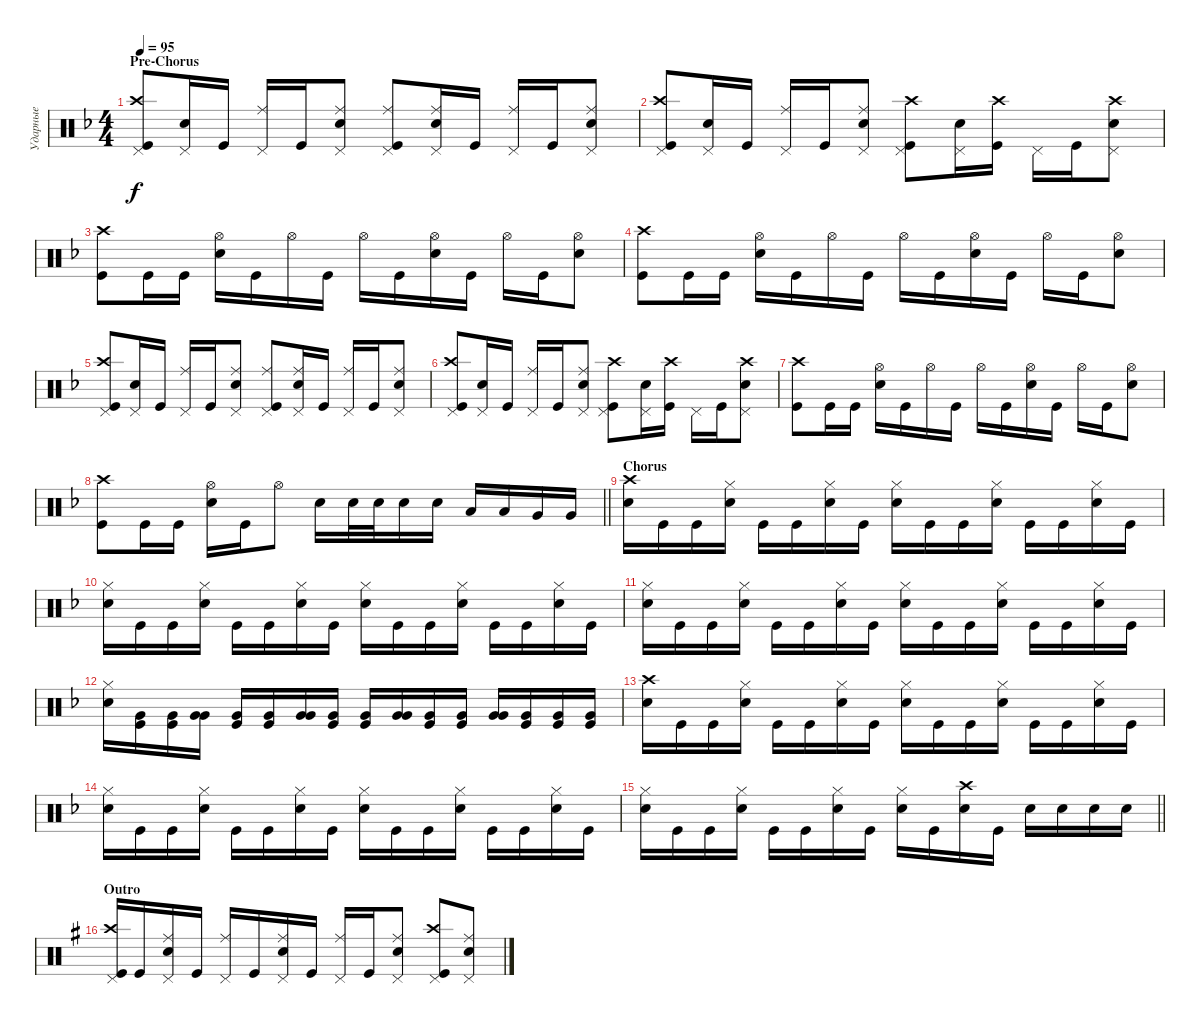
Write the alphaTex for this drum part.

\track ("Ударные" "Ударные") {instrument percussion}
\staff {score}
\articulation defaults
\ts (4 4)
\section ("" "Pre-Chorus")
\tempo 95
\clef neutral
\ks dminor
("Kick (hit)" "Crash high (hit)" "Pedal Hi-Hat (hit)").8{dy f} ("Snare (hit) 2" "Pedal Hi-Hat (hit)").16 "Kick (hit)".16 ("Pedal Hi-Hat (hit)" "Ride (middle)").16 "Kick (hit)".16 ("Snare (hit) 2" "Pedal Hi-Hat (hit)" "Ride (middle)").8 ("Kick (hit)" "Pedal Hi-Hat (hit)" "Ride (middle)").8 ("Snare (hit) 2" "Pedal Hi-Hat (hit)" "Ride (middle)").16 "Kick (hit)".16 ("Pedal Hi-Hat (hit)" "Ride (middle)").16 "Kick (hit)".16 ("Snare (hit) 2" "Pedal Hi-Hat (hit)" "Ride (middle)").8 |
("Kick (hit)" "Crash high (hit)" "Pedal Hi-Hat (hit)").8 ("Snare (hit) 2" "Pedal Hi-Hat (hit)").16 "Kick (hit)".16 ("Pedal Hi-Hat (hit)" "Ride (middle)").16 "Kick (hit)".16 ("Snare (hit) 2" "Pedal Hi-Hat (hit)" "Ride (middle)").8 ("Kick (hit)" "Pedal Hi-Hat (hit)" "Crash high (hit)").8 ("Snare (hit) 2" "Pedal Hi-Hat (hit)").16 ("Kick (hit)" "Crash high (hit)").16 "Pedal Hi-Hat (hit)".16 "Kick (hit)".16 ("Snare (hit) 2" "Pedal Hi-Hat (hit)" "Crash high (hit)").8 |
("Kick (hit)" "Crash high (hit)").8 "Kick (hit)".16 "Kick (hit)".16 ("Snare (hit) 2" "Hi-Hat (open)").16 "Kick (hit)".16 "Hi-Hat (open)".16 "Kick (hit)".16 "Hi-Hat (open)".16 "Kick (hit)".16 ("Snare (hit) 2" "Hi-Hat (open)").16 "Kick (hit)".16 "Hi-Hat (open)".16 "Kick (hit)".16 ("Snare (hit) 2" "Hi-Hat (open)").8 |
("Kick (hit)" "Crash high (hit)").8 "Kick (hit)".16 "Kick (hit)".16 ("Snare (hit) 2" "Hi-Hat (open)").16 "Kick (hit)".16 "Hi-Hat (open)".16 "Kick (hit)".16 "Hi-Hat (open)".16 "Kick (hit)".16 ("Snare (hit) 2" "Hi-Hat (open)").16 "Kick (hit)".16 "Hi-Hat (open)".16 "Kick (hit)".16 ("Snare (hit) 2" "Hi-Hat (open)").8 |
("Kick (hit)" "Crash high (hit)" "Pedal Hi-Hat (hit)").8 ("Snare (hit) 2" "Pedal Hi-Hat (hit)").16 "Kick (hit)".16 ("Pedal Hi-Hat (hit)" "Ride (middle)").16 "Kick (hit)".16 ("Snare (hit) 2" "Pedal Hi-Hat (hit)" "Ride (middle)").8 ("Kick (hit)" "Pedal Hi-Hat (hit)" "Ride (middle)").8 ("Snare (hit) 2" "Pedal Hi-Hat (hit)" "Ride (middle)").16 "Kick (hit)".16 ("Pedal Hi-Hat (hit)" "Ride (middle)").16 "Kick (hit)".16 ("Snare (hit) 2" "Pedal Hi-Hat (hit)" "Ride (middle)").8 |
("Kick (hit)" "Crash high (hit)" "Pedal Hi-Hat (hit)").8 ("Snare (hit) 2" "Pedal Hi-Hat (hit)").16 "Kick (hit)".16 ("Pedal Hi-Hat (hit)" "Ride (middle)").16 "Kick (hit)".16 ("Snare (hit) 2" "Pedal Hi-Hat (hit)" "Ride (middle)").8 ("Kick (hit)" "Pedal Hi-Hat (hit)" "Crash high (hit)").8 ("Snare (hit) 2" "Pedal Hi-Hat (hit)").16 ("Kick (hit)" "Crash high (hit)").16 "Pedal Hi-Hat (hit)".16 "Kick (hit)".16 ("Snare (hit) 2" "Pedal Hi-Hat (hit)" "Crash high (hit)").8 |
("Kick (hit)" "Crash high (hit)").8 "Kick (hit)".16 "Kick (hit)".16 ("Snare (hit) 2" "Hi-Hat (open)").16 "Kick (hit)".16 "Hi-Hat (open)".16 "Kick (hit)".16 "Hi-Hat (open)".16 "Kick (hit)".16 ("Snare (hit) 2" "Hi-Hat (open)").16 "Kick (hit)".16 "Hi-Hat (open)".16 "Kick (hit)".16 ("Snare (hit) 2" "Hi-Hat (open)").8 |
\barLineRight lightlight
("Kick (hit)" "Crash high (hit)").8 "Kick (hit)".16 "Kick (hit)".16 ("Snare (hit) 2" "Hi-Hat (open)").16 "Kick (hit)".16 "Hi-Hat (open)".8 "Snare (hit) 2".16 "Snare (hit) 2".32 "Snare (hit) 2".32 "Snare (hit) 2".16 "Snare (hit) 2".16 "Low Tom (hit)".16 "Low Tom (hit)".16 "Very Low Tom (hit)".16 "Very Low Tom (hit)".16 |
\section ("" "Chorus")
("Snare (hit) 2" "Crash high (hit)").16 "Kick (hit)".16 "Kick (hit)".16 ("Snare (hit) 2" "Hi-Hat (closed)").16 "Kick (hit)".16 "Kick (hit)".16 ("Snare (hit) 2" "Hi-Hat (closed)").16 "Kick (hit)".16 ("Snare (hit) 2" "Hi-Hat (closed)").16 "Kick (hit)".16 "Kick (hit)".16 ("Snare (hit) 2" "Hi-Hat (closed)").16 "Kick (hit)".16 "Kick (hit)".16 ("Snare (hit) 2" "Hi-Hat (closed)").16 "Kick (hit)".16 |
("Snare (hit) 2" "Hi-Hat (closed)").16 "Kick (hit)".16 "Kick (hit)".16 ("Snare (hit) 2" "Hi-Hat (closed)").16 "Kick (hit)".16 "Kick (hit)".16 ("Snare (hit) 2" "Hi-Hat (closed)").16 "Kick (hit)".16 ("Snare (hit) 2" "Hi-Hat (closed)").16 "Kick (hit)".16 "Kick (hit)".16 ("Snare (hit) 2" "Hi-Hat (closed)").16 "Kick (hit)".16 "Kick (hit)".16 ("Snare (hit) 2" "Hi-Hat (closed)").16 "Kick (hit)".16 |
("Snare (hit) 2" "Hi-Hat (closed)").16 "Kick (hit)".16 "Kick (hit)".16 ("Snare (hit) 2" "Hi-Hat (closed)").16 "Kick (hit)".16 "Kick (hit)".16 ("Snare (hit) 2" "Hi-Hat (closed)").16 "Kick (hit)".16 ("Snare (hit) 2" "Hi-Hat (closed)").16 "Kick (hit)".16 "Kick (hit)".16 ("Snare (hit) 2" "Hi-Hat (closed)").16 "Kick (hit)".16 "Kick (hit)".16 ("Snare (hit) 2" "Hi-Hat (closed)").16 "Kick (hit)".16 |
("Snare (hit) 2" "Hi-Hat (closed)").16 ("Kick (hit)" "Very Low Tom (hit)").16 ("Kick (hit)" "Very Low Tom (hit)").16 ("Very Low Tom (hit)" "Very Low Tom (hit)").16{bd 240} ("Kick (hit)" "Very Low Tom (hit)").16 ("Kick (hit)" "Very Low Tom (hit)").16 ("Very Low Tom (hit)" "Very Low Tom (hit)").16{bd 240} ("Kick (hit)" "Very Low Tom (hit)").16 ("Kick (hit)" "Very Low Tom (hit)").16 ("Very Low Tom (hit)" "Very Low Tom (hit)").16{bd 240} ("Kick (hit)" "Very Low Tom (hit)").16 ("Kick (hit)" "Very Low Tom (hit)").16 ("Very Low Tom (hit)" "Very Low Tom (hit)").16{bd 240} ("Kick (hit)" "Very Low Tom (hit)").16 ("Kick (hit)" "Very Low Tom (hit)").16 ("Very Low Tom (hit)" "Kick (hit)").16 |
("Snare (hit) 2" "Crash high (hit)").16 "Kick (hit)".16 "Kick (hit)".16 ("Snare (hit) 2" "Hi-Hat (closed)").16 "Kick (hit)".16 "Kick (hit)".16 ("Snare (hit) 2" "Hi-Hat (closed)").16 "Kick (hit)".16 ("Snare (hit) 2" "Hi-Hat (closed)").16 "Kick (hit)".16 "Kick (hit)".16 ("Snare (hit) 2" "Hi-Hat (closed)").16 "Kick (hit)".16 "Kick (hit)".16 ("Snare (hit) 2" "Hi-Hat (closed)").16 "Kick (hit)".16 |
("Snare (hit) 2" "Hi-Hat (closed)").16 "Kick (hit)".16 "Kick (hit)".16 ("Snare (hit) 2" "Hi-Hat (closed)").16 "Kick (hit)".16 "Kick (hit)".16 ("Snare (hit) 2" "Hi-Hat (closed)").16 "Kick (hit)".16 ("Snare (hit) 2" "Hi-Hat (closed)").16 "Kick (hit)".16 "Kick (hit)".16 ("Snare (hit) 2" "Hi-Hat (closed)").16 "Kick (hit)".16 "Kick (hit)".16 ("Snare (hit) 2" "Hi-Hat (closed)").16 "Kick (hit)".16 |
\barLineRight lightlight
("Snare (hit) 2" "Hi-Hat (closed)").16 "Kick (hit)".16 "Kick (hit)".16 ("Snare (hit) 2" "Hi-Hat (closed)").16 "Kick (hit)".16 "Kick (hit)".16 ("Snare (hit) 2" "Hi-Hat (closed)").16 "Kick (hit)".16 ("Snare (hit) 2" "Hi-Hat (closed)").16 "Kick (hit)".16 ("Snare (hit) 2" "Crash high (hit)").16 "Kick (hit)".16 "Snare (hit) 2".16 "Snare (hit) 2".16 "Snare (hit) 2".16 "Snare (hit) 2".16 |
\section ("" "Outro")
\ks eminor
("Kick (hit)" "Pedal Hi-Hat (hit)" "Crash high (hit)").16 "Kick (hit)".16 ("Snare (hit) 2" "Pedal Hi-Hat (hit)" "Ride (middle)").16 "Kick (hit)".16 ("Pedal Hi-Hat (hit)" "Ride (middle)").16 "Kick (hit)".16 ("Snare (hit) 2" "Pedal Hi-Hat (hit)" "Ride (middle)").16 "Kick (hit)".16 ("Pedal Hi-Hat (hit)" "Ride (middle)").16 "Kick (hit)".16 ("Snare (hit) 2" "Pedal Hi-Hat (hit)" "Ride (middle)").8 ("Kick (hit)" "Crash high (hit)" "Pedal Hi-Hat (hit)").8 ("Snare (hit) 2" "Pedal Hi-Hat (hit)" "Ride (middle)").8
